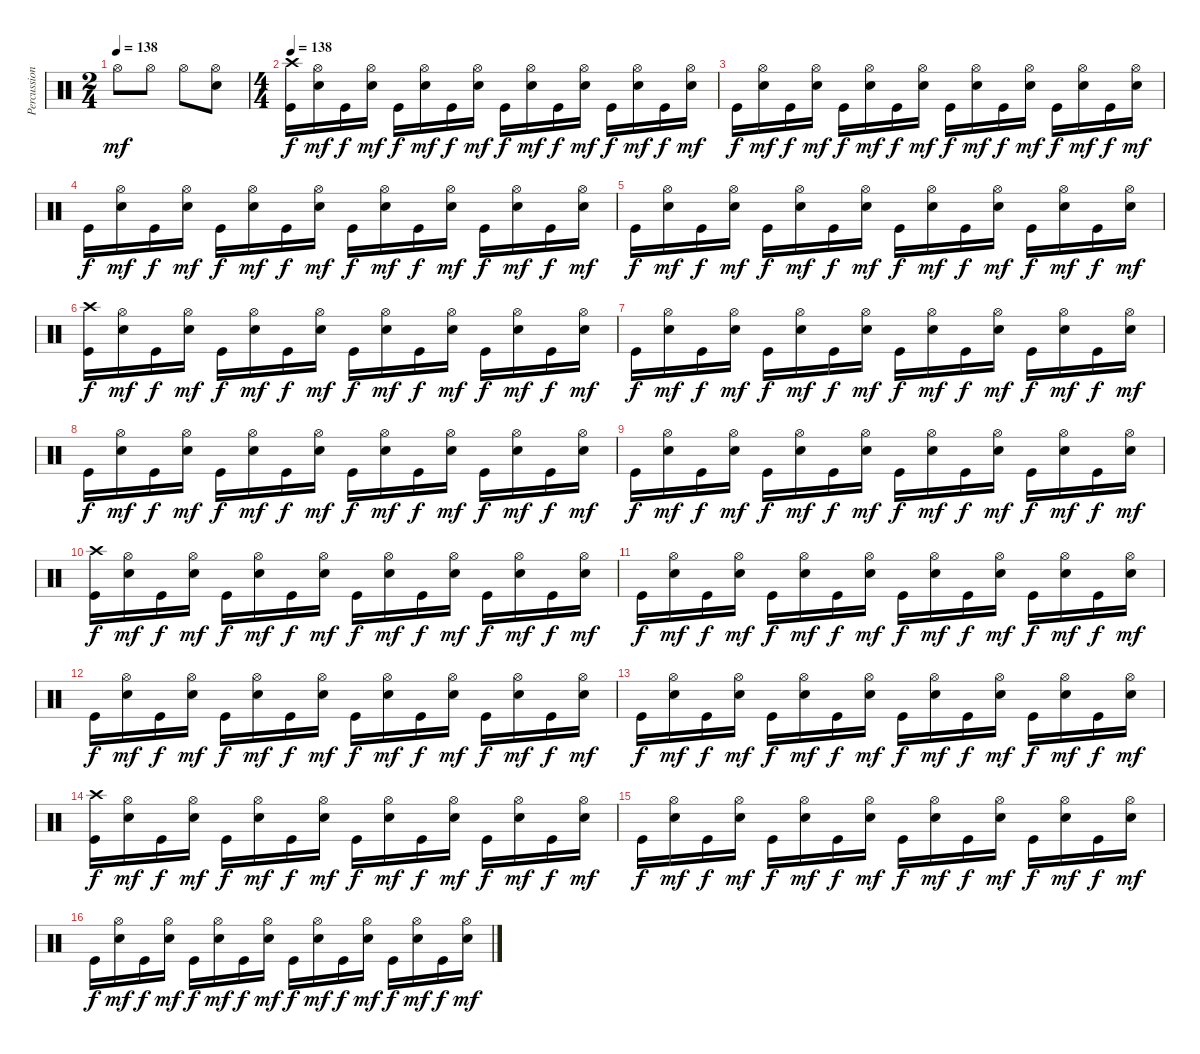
\track ("Percussions" "Percussion") {instrument percussion}
\staff {score}
\articulation defaults
\ts (2 4)
\tempo 138
\tempo 120
\tempo 138
\clef neutral
\ks c "Hi-Hat (open)".8{dy mf} "Hi-Hat (open)".8 "Hi-Hat (open)".8
("Electric Snare (hit)" "Hi-Hat (open)").8 |
\ts (4 4)
\tempo 138
("Kick (hit)" "Crash high (hit)").16{dy f} ("Electric Snare (hit)" "Hi-Hat (open)").16{dy mf} "Kick (hit)".16{dy f} ("Electric Snare (hit)" "Hi-Hat (open)").16{dy mf} "Kick (hit)".16{dy f} ("Electric Snare (hit)" "Hi-Hat (open)").16{dy mf} "Kick (hit)".16{dy f} ("Electric Snare (hit)" "Hi-Hat (open)").16{dy mf} "Kick (hit)".16{dy f} ("Electric Snare (hit)" "Hi-Hat (open)").16{dy mf} "Kick (hit)".16{dy f} ("Electric Snare (hit)" "Hi-Hat (open)").16{dy mf} "Kick (hit)".16{dy f} ("Electric Snare (hit)" "Hi-Hat (open)").16{dy mf} "Kick (hit)".16{dy f} ("Electric Snare (hit)" "Hi-Hat (open)").16{dy mf} |
"Kick (hit)".16{dy f} ("Electric Snare (hit)" "Hi-Hat (open)").16{dy mf} "Kick (hit)".16{dy f} ("Electric Snare (hit)" "Hi-Hat (open)").16{dy mf} "Kick (hit)".16{dy f} ("Electric Snare (hit)" "Hi-Hat (open)").16{dy mf} "Kick (hit)".16{dy f} ("Electric Snare (hit)" "Hi-Hat (open)").16{dy mf} "Kick (hit)".16{dy f} ("Electric Snare (hit)" "Hi-Hat (open)").16{dy mf} "Kick (hit)".16{dy f} ("Electric Snare (hit)" "Hi-Hat (open)").16{dy mf} "Kick (hit)".16{dy f} ("Electric Snare (hit)" "Hi-Hat (open)").16{dy mf} "Kick (hit)".16{dy f} ("Electric Snare (hit)" "Hi-Hat (open)").16{dy mf} |
"Kick (hit)".16{dy f} ("Electric Snare (hit)" "Hi-Hat (open)").16{dy mf} "Kick (hit)".16{dy f} ("Electric Snare (hit)" "Hi-Hat (open)").16{dy mf} "Kick (hit)".16{dy f} ("Electric Snare (hit)" "Hi-Hat (open)").16{dy mf} "Kick (hit)".16{dy f} ("Electric Snare (hit)" "Hi-Hat (open)").16{dy mf} "Kick (hit)".16{dy f} ("Electric Snare (hit)" "Hi-Hat (open)").16{dy mf} "Kick (hit)".16{dy f} ("Electric Snare (hit)" "Hi-Hat (open)").16{dy mf} "Kick (hit)".16{dy f} ("Electric Snare (hit)" "Hi-Hat (open)").16{dy mf} "Kick (hit)".16{dy f} ("Electric Snare (hit)" "Hi-Hat (open)").16{dy mf} |
"Kick (hit)".16{dy f} ("Electric Snare (hit)" "Hi-Hat (open)").16{dy mf} "Kick (hit)".16{dy f} ("Electric Snare (hit)" "Hi-Hat (open)").16{dy mf} "Kick (hit)".16{dy f} ("Electric Snare (hit)" "Hi-Hat (open)").16{dy mf} "Kick (hit)".16{dy f} ("Electric Snare (hit)" "Hi-Hat (open)").16{dy mf} "Kick (hit)".16{dy f} ("Electric Snare (hit)" "Hi-Hat (open)").16{dy mf} "Kick (hit)".16{dy f} ("Electric Snare (hit)" "Hi-Hat (open)").16{dy mf} "Kick (hit)".16{dy f} ("Electric Snare (hit)" "Hi-Hat (open)").16{dy mf} "Kick (hit)".16{dy f} ("Electric Snare (hit)" "Hi-Hat (open)").16{dy mf} |
("Kick (hit)" "Crash high (hit)").16{dy f} ("Electric Snare (hit)" "Hi-Hat (open)").16{dy mf} "Kick (hit)".16{dy f} ("Electric Snare (hit)" "Hi-Hat (open)").16{dy mf} "Kick (hit)".16{dy f} ("Electric Snare (hit)" "Hi-Hat (open)").16{dy mf} "Kick (hit)".16{dy f} ("Electric Snare (hit)" "Hi-Hat (open)").16{dy mf} "Kick (hit)".16{dy f} ("Electric Snare (hit)" "Hi-Hat (open)").16{dy mf} "Kick (hit)".16{dy f} ("Electric Snare (hit)" "Hi-Hat (open)").16{dy mf} "Kick (hit)".16{dy f} ("Electric Snare (hit)" "Hi-Hat (open)").16{dy mf} "Kick (hit)".16{dy f} ("Electric Snare (hit)" "Hi-Hat (open)").16{dy mf} |
"Kick (hit)".16{dy f} ("Electric Snare (hit)" "Hi-Hat (open)").16{dy mf} "Kick (hit)".16{dy f} ("Electric Snare (hit)" "Hi-Hat (open)").16{dy mf} "Kick (hit)".16{dy f} ("Electric Snare (hit)" "Hi-Hat (open)").16{dy mf} "Kick (hit)".16{dy f} ("Electric Snare (hit)" "Hi-Hat (open)").16{dy mf} "Kick (hit)".16{dy f} ("Electric Snare (hit)" "Hi-Hat (open)").16{dy mf} "Kick (hit)".16{dy f} ("Electric Snare (hit)" "Hi-Hat (open)").16{dy mf} "Kick (hit)".16{dy f} ("Electric Snare (hit)" "Hi-Hat (open)").16{dy mf} "Kick (hit)".16{dy f} ("Electric Snare (hit)" "Hi-Hat (open)").16{dy mf} |
"Kick (hit)".16{dy f} ("Electric Snare (hit)" "Hi-Hat (open)").16{dy mf} "Kick (hit)".16{dy f} ("Electric Snare (hit)" "Hi-Hat (open)").16{dy mf} "Kick (hit)".16{dy f} ("Electric Snare (hit)" "Hi-Hat (open)").16{dy mf} "Kick (hit)".16{dy f} ("Electric Snare (hit)" "Hi-Hat (open)").16{dy mf} "Kick (hit)".16{dy f} ("Electric Snare (hit)" "Hi-Hat (open)").16{dy mf} "Kick (hit)".16{dy f} ("Electric Snare (hit)" "Hi-Hat (open)").16{dy mf} "Kick (hit)".16{dy f} ("Electric Snare (hit)" "Hi-Hat (open)").16{dy mf} "Kick (hit)".16{dy f} ("Electric Snare (hit)" "Hi-Hat (open)").16{dy mf} |
"Kick (hit)".16{dy f} ("Electric Snare (hit)" "Hi-Hat (open)").16{dy mf} "Kick (hit)".16{dy f} ("Electric Snare (hit)" "Hi-Hat (open)").16{dy mf} "Kick (hit)".16{dy f} ("Electric Snare (hit)" "Hi-Hat (open)").16{dy mf} "Kick (hit)".16{dy f} ("Electric Snare (hit)" "Hi-Hat (open)").16{dy mf} "Kick (hit)".16{dy f} ("Electric Snare (hit)" "Hi-Hat (open)").16{dy mf} "Kick (hit)".16{dy f} ("Electric Snare (hit)" "Hi-Hat (open)").16{dy mf} "Kick (hit)".16{dy f} ("Electric Snare (hit)" "Hi-Hat (open)").16{dy mf} "Kick (hit)".16{dy f} ("Electric Snare (hit)" "Hi-Hat (open)").16{dy mf} |
("Kick (hit)" "Crash high (hit)").16{dy f} ("Electric Snare (hit)" "Hi-Hat (open)").16{dy mf} "Kick (hit)".16{dy f} ("Electric Snare (hit)" "Hi-Hat (open)").16{dy mf} "Kick (hit)".16{dy f} ("Electric Snare (hit)" "Hi-Hat (open)").16{dy mf} "Kick (hit)".16{dy f} ("Electric Snare (hit)" "Hi-Hat (open)").16{dy mf} "Kick (hit)".16{dy f} ("Electric Snare (hit)" "Hi-Hat (open)").16{dy mf} "Kick (hit)".16{dy f} ("Electric Snare (hit)" "Hi-Hat (open)").16{dy mf} "Kick (hit)".16{dy f} ("Electric Snare (hit)" "Hi-Hat (open)").16{dy mf} "Kick (hit)".16{dy f} ("Electric Snare (hit)" "Hi-Hat (open)").16{dy mf} |
"Kick (hit)".16{dy f} ("Electric Snare (hit)" "Hi-Hat (open)").16{dy mf} "Kick (hit)".16{dy f} ("Electric Snare (hit)" "Hi-Hat (open)").16{dy mf} "Kick (hit)".16{dy f} ("Electric Snare (hit)" "Hi-Hat (open)").16{dy mf} "Kick (hit)".16{dy f} ("Electric Snare (hit)" "Hi-Hat (open)").16{dy mf} "Kick (hit)".16{dy f} ("Electric Snare (hit)" "Hi-Hat (open)").16{dy mf} "Kick (hit)".16{dy f} ("Electric Snare (hit)" "Hi-Hat (open)").16{dy mf} "Kick (hit)".16{dy f} ("Electric Snare (hit)" "Hi-Hat (open)").16{dy mf} "Kick (hit)".16{dy f} ("Electric Snare (hit)" "Hi-Hat (open)").16{dy mf} |
"Kick (hit)".16{dy f} ("Electric Snare (hit)" "Hi-Hat (open)").16{dy mf} "Kick (hit)".16{dy f} ("Electric Snare (hit)" "Hi-Hat (open)").16{dy mf} "Kick (hit)".16{dy f} ("Electric Snare (hit)" "Hi-Hat (open)").16{dy mf} "Kick (hit)".16{dy f} ("Electric Snare (hit)" "Hi-Hat (open)").16{dy mf} "Kick (hit)".16{dy f} ("Electric Snare (hit)" "Hi-Hat (open)").16{dy mf} "Kick (hit)".16{dy f} ("Electric Snare (hit)" "Hi-Hat (open)").16{dy mf} "Kick (hit)".16{dy f} ("Electric Snare (hit)" "Hi-Hat (open)").16{dy mf} "Kick (hit)".16{dy f} ("Electric Snare (hit)" "Hi-Hat (open)").16{dy mf} |
"Kick (hit)".16{dy f} ("Electric Snare (hit)" "Hi-Hat (open)").16{dy mf} "Kick (hit)".16{dy f} ("Electric Snare (hit)" "Hi-Hat (open)").16{dy mf} "Kick (hit)".16{dy f} ("Electric Snare (hit)" "Hi-Hat (open)").16{dy mf} "Kick (hit)".16{dy f} ("Electric Snare (hit)" "Hi-Hat (open)").16{dy mf} "Kick (hit)".16{dy f} ("Electric Snare (hit)" "Hi-Hat (open)").16{dy mf} "Kick (hit)".16{dy f} ("Electric Snare (hit)" "Hi-Hat (open)").16{dy mf} "Kick (hit)".16{dy f} ("Electric Snare (hit)" "Hi-Hat (open)").16{dy mf} "Kick (hit)".16{dy f} ("Electric Snare (hit)" "Hi-Hat (open)").16{dy mf} |
("Kick (hit)" "Crash high (hit)").16{dy f} ("Electric Snare (hit)" "Hi-Hat (open)").16{dy mf} "Kick (hit)".16{dy f} ("Electric Snare (hit)" "Hi-Hat (open)").16{dy mf} "Kick (hit)".16{dy f} ("Electric Snare (hit)" "Hi-Hat (open)").16{dy mf} "Kick (hit)".16{dy f} ("Electric Snare (hit)" "Hi-Hat (open)").16{dy mf} "Kick (hit)".16{dy f} ("Electric Snare (hit)" "Hi-Hat (open)").16{dy mf} "Kick (hit)".16{dy f} ("Electric Snare (hit)" "Hi-Hat (open)").16{dy mf} "Kick (hit)".16{dy f} ("Electric Snare (hit)" "Hi-Hat (open)").16{dy mf} "Kick (hit)".16{dy f} ("Electric Snare (hit)" "Hi-Hat (open)").16{dy mf} |
"Kick (hit)".16{dy f} ("Electric Snare (hit)" "Hi-Hat (open)").16{dy mf} "Kick (hit)".16{dy f} ("Electric Snare (hit)" "Hi-Hat (open)").16{dy mf} "Kick (hit)".16{dy f} ("Electric Snare (hit)" "Hi-Hat (open)").16{dy mf} "Kick (hit)".16{dy f} ("Electric Snare (hit)" "Hi-Hat (open)").16{dy mf} "Kick (hit)".16{dy f} ("Electric Snare (hit)" "Hi-Hat (open)").16{dy mf} "Kick (hit)".16{dy f} ("Electric Snare (hit)" "Hi-Hat (open)").16{dy mf} "Kick (hit)".16{dy f} ("Electric Snare (hit)" "Hi-Hat (open)").16{dy mf} "Kick (hit)".16{dy f} ("Electric Snare (hit)" "Hi-Hat (open)").16{dy mf} |
"Kick (hit)".16{dy f} ("Electric Snare (hit)" "Hi-Hat (open)").16{dy mf} "Kick (hit)".16{dy f} ("Electric Snare (hit)" "Hi-Hat (open)").16{dy mf} "Kick (hit)".16{dy f} ("Electric Snare (hit)" "Hi-Hat (open)").16{dy mf} "Kick (hit)".16{dy f} ("Electric Snare (hit)" "Hi-Hat (open)").16{dy mf} "Kick (hit)".16{dy f} ("Electric Snare (hit)" "Hi-Hat (open)").16{dy mf} "Kick (hit)".16{dy f} ("Electric Snare (hit)" "Hi-Hat (open)").16{dy mf} "Kick (hit)".16{dy f} ("Electric Snare (hit)" "Hi-Hat (open)").16{dy mf} "Kick (hit)".16{dy f} ("Electric Snare (hit)" "Hi-Hat (open)").16{dy mf}
